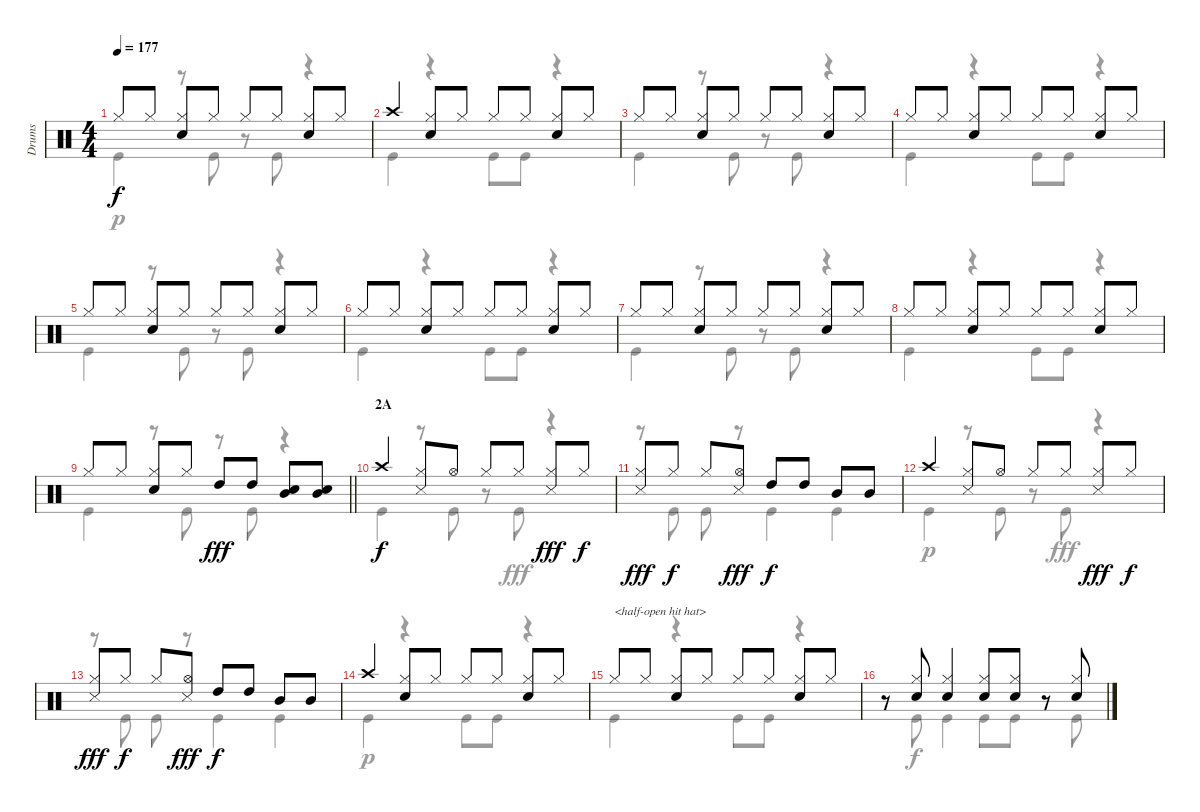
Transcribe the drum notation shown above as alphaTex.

\track ("Drums" "Drums") {instrument percussion}
\staff {score}
\articulation defaults
\voice
\ts (4 4)
\tempo 177
\clef neutral
\ks c "Hi-Hat (closed)".8{dy f} "Hi-Hat (closed)".8
("Hi-Hat (closed)" "Snare (hit) 2").8 "Hi-Hat (closed)".8 "Hi-Hat (closed)".8 "Hi-Hat (closed)".8 ("Hi-Hat (closed)" "Snare (hit) 2").8 "Hi-Hat (closed)".8 |
"Crash high (hit)".4 ("Hi-Hat (closed)" "Snare (hit) 2").8 "Hi-Hat (closed)".8 "Hi-Hat (closed)".8 "Hi-Hat (closed)".8 ("Hi-Hat (closed)" "Snare (hit) 2").8 "Hi-Hat (closed)".8 |
"Hi-Hat (closed)".8 "Hi-Hat (closed)".8 ("Hi-Hat (closed)" "Snare (hit) 2").8 "Hi-Hat (closed)".8 "Hi-Hat (closed)".8 "Hi-Hat (closed)".8 ("Hi-Hat (closed)" "Snare (hit) 2").8 "Hi-Hat (closed)".8 |
"Hi-Hat (closed)".8 "Hi-Hat (closed)".8 ("Hi-Hat (closed)" "Snare (hit) 2").8 "Hi-Hat (closed)".8 "Hi-Hat (closed)".8 "Hi-Hat (closed)".8 ("Hi-Hat (closed)" "Snare (hit) 2").8 "Hi-Hat (closed)".8 |
"Hi-Hat (closed)".8 "Hi-Hat (closed)".8 ("Hi-Hat (closed)" "Snare (hit) 2").8 "Hi-Hat (closed)".8 "Hi-Hat (closed)".8 "Hi-Hat (closed)".8 ("Hi-Hat (closed)" "Snare (hit) 2").8 "Hi-Hat (closed)".8 |
"Hi-Hat (closed)".8 "Hi-Hat (closed)".8 ("Hi-Hat (closed)" "Snare (hit) 2").8 "Hi-Hat (closed)".8 "Hi-Hat (closed)".8 "Hi-Hat (closed)".8 ("Hi-Hat (closed)" "Snare (hit) 2").8 "Hi-Hat (closed)".8 |
"Hi-Hat (closed)".8 "Hi-Hat (closed)".8 ("Hi-Hat (closed)" "Snare (hit) 2").8 "Hi-Hat (closed)".8 "Hi-Hat (closed)".8 "Hi-Hat (closed)".8 ("Hi-Hat (closed)" "Snare (hit) 2").8 "Hi-Hat (closed)".8 |
"Hi-Hat (closed)".8 "Hi-Hat (closed)".8 ("Hi-Hat (closed)" "Snare (hit) 2").8 "Hi-Hat (closed)".8 "Hi-Hat (closed)".8 "Hi-Hat (closed)".8 ("Hi-Hat (closed)" "Snare (hit) 2").8 "Hi-Hat (closed)".8 |
\barLineRight lightlight "Hi-Hat (closed)".8 "Hi-Hat (closed)".8
("Hi-Hat (closed)" "Snare (hit) 2").8 "Hi-Hat (closed)".8 "High Tom (hit)".8{dy fff} "High Tom (hit)".8 ("Mid Tom (hit)" "Snare (hit) 2").8 ("Mid Tom (hit)" "Snare (hit) 2").8 |
\section ("" "2A")
"Crash high (hit)".4{dy f} ("Hi-Hat (closed)" "Snare (side stick) 3").8 "Hi-Hat (open)".8 "Hi-Hat (closed)".8 "Hi-Hat (closed)".8 ("Hi-Hat (closed)" "Snare (side stick) 3").8{dy fff} "Hi-Hat (closed)".8{dy f} |
("Hi-Hat (closed)" "Snare (side stick) 3").8{dy fff} "Hi-Hat (closed)".8{dy f} "Hi-Hat (closed)".8 ("Hi-Hat (open)" "Snare (side stick) 3").8{dy fff} "High Tom (hit)".8{dy f} "High Tom (hit)".8 "Mid Tom (hit)".8 "Mid Tom (hit)".8 |
"Crash high (hit)".4 ("Hi-Hat (closed)" "Snare (side stick) 3").8 "Hi-Hat (open)".8 "Hi-Hat (closed)".8 "Hi-Hat (closed)".8 ("Hi-Hat (closed)" "Snare (side stick) 3").8{dy fff} "Hi-Hat (closed)".8{dy f} |
("Hi-Hat (closed)" "Snare (side stick) 3").8{dy fff} "Hi-Hat (closed)".8{dy f} "Hi-Hat (closed)".8 ("Hi-Hat (open)" "Snare (side stick) 3").8{dy fff} "High Tom (hit)".8{dy f} "High Tom (hit)".8 "Mid Tom (hit)".8 "Mid Tom (hit)".8 |
"Crash high (hit)".4 ("Hi-Hat (closed)" "Snare (hit) 2").8 "Hi-Hat (closed)".8 "Hi-Hat (closed)".8 "Hi-Hat (closed)".8 ("Hi-Hat (closed)" "Snare (hit) 2").8 "Hi-Hat (closed)".8 |
"Hi-Hat (closed)".8{txt "<half-open hit hat>"} "Hi-Hat (closed)".8 ("Hi-Hat (closed)" "Snare (hit) 2").8 "Hi-Hat (closed)".8 "Hi-Hat (closed)".8 "Hi-Hat (closed)".8 ("Hi-Hat (closed)" "Snare (hit) 2").8 "Hi-Hat (closed)".8 |
r.8 ("Hi-Hat (closed)" "Snare (hit) 2").8 ("Hi-Hat (closed)" "Snare (hit) 2").4 ("Hi-Hat (closed)" "Snare (hit) 2").8 ("Hi-Hat (closed)" "Snare (hit) 2").8 r.8 ("Hi-Hat (closed)" "Snare (hit) 2").8
\voice
\clef neutral
\ottava regular
\simile none
\ks c "Kick (hit)".4{dy p}
r.8 "Kick (hit)".8 r.8 "Kick (hit)".8 r.4 |
"Kick (hit)".4 r.4 "Kick (hit)".8 "Kick (hit)".8 r.4 |
"Kick (hit)".4 r.8 "Kick (hit)".8 r.8 "Kick (hit)".8 r.4 |
"Kick (hit)".4 r.4 "Kick (hit)".8 "Kick (hit)".8 r.4 |
"Kick (hit)".4 r.8 "Kick (hit)".8 r.8 "Kick (hit)".8 r.4 |
"Kick (hit)".4 r.4 "Kick (hit)".8 "Kick (hit)".8 r.4 |
"Kick (hit)".4 r.8 "Kick (hit)".8 r.8 "Kick (hit)".8 r.4 |
"Kick (hit)".4 r.4 "Kick (hit)".8 "Kick (hit)".8 r.4 |
\barLineRight lightlight "Kick (hit)".4
r.8 "Kick (hit)".8 r.8 "Kick (hit)".8 r.4 |
"Kick (hit)".4 r.8 "Kick (hit)".8 r.8 "Kick (hit)".8{dy fff} r.4 |
r.8 "Kick (hit)".8 "Kick (hit)".8 r.8 "Kick (hit)".4 "Kick (hit)".4 |
"Kick (hit)".4{dy p} r.8 "Kick (hit)".8 r.8 "Kick (hit)".8{dy fff} r.4 |
r.8 "Kick (hit)".8 "Kick (hit)".8 r.8 "Kick (hit)".4 "Kick (hit)".4 |
"Kick (hit)".4{dy p} r.4 "Kick (hit)".8 "Kick (hit)".8 r.4 |
"Kick (hit)".4 r.4 "Kick (hit)".8 "Kick (hit)".8 r.4 |
r.8 "Kick (hit)".8{dy f} "Kick (hit)".4 "Kick (hit)".8 "Kick (hit)".8 r.8 "Kick (hit)".8
